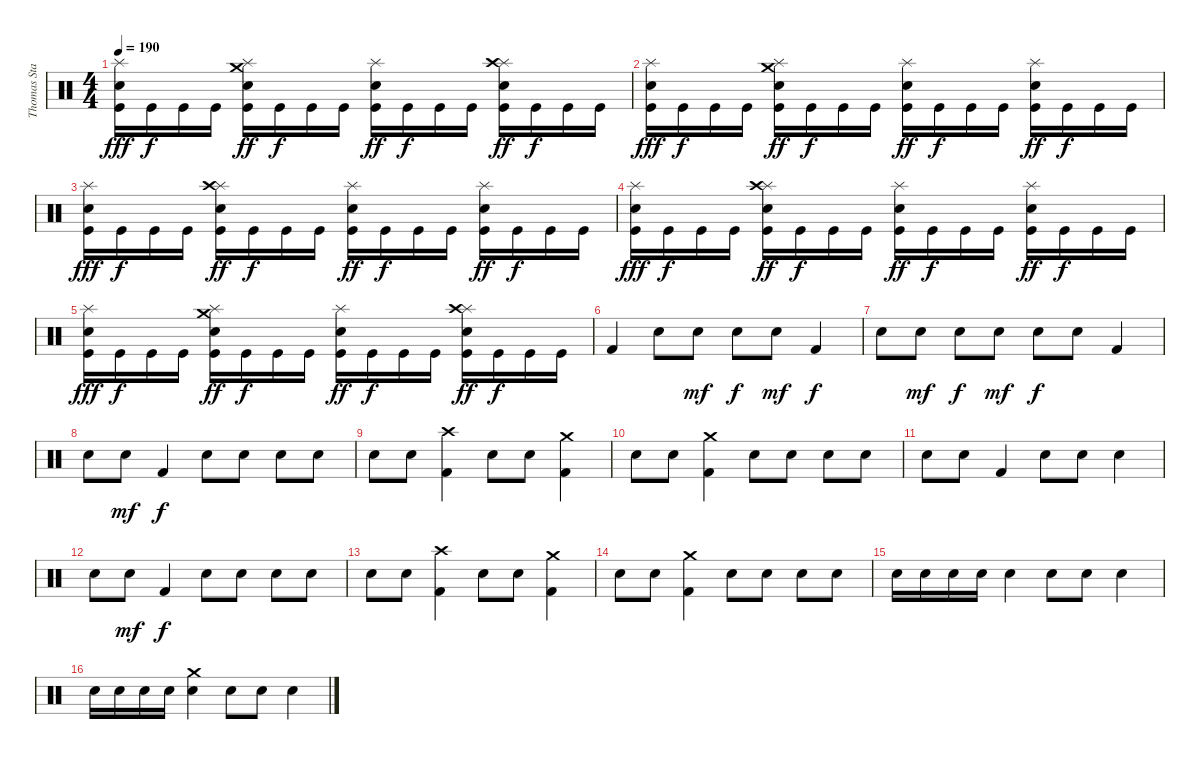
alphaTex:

\track ("Thomas Stauch" "Thomas Sta") {instrument percussion}
\staff {score}
\articulation defaults
\ts (4 4)
\tempo 190
\clef neutral
\ks c
("Splash (hit)" "Electric Snare (hit)" "Kick (hit)").16{dy fff} "Kick (hit)".16{dy f} "Kick (hit)".16 "Kick (hit)".16 ("Splash (hit)" "Crash medium (hit)" "Electric Snare (hit)" "Kick (hit)").16{dy ff} "Kick (hit)".16{dy f} "Kick (hit)".16 "Kick (hit)".16 ("Splash (hit)" "Electric Snare (hit)" "Kick (hit)").16{dy ff} "Kick (hit)".16{dy f} "Kick (hit)".16 "Kick (hit)".16 ("Splash (hit)" "Crash high (hit)" "Electric Snare (hit)" "Kick (hit)").16{dy ff} "Kick (hit)".16{dy f} "Kick (hit)".16 "Kick (hit)".16 |
("Splash (hit)" "Electric Snare (hit)" "Kick (hit)").16{dy fff} "Kick (hit)".16{dy f} "Kick (hit)".16 "Kick (hit)".16 ("Splash (hit)" "Crash medium (hit)" "Electric Snare (hit)" "Kick (hit)").16{dy ff} "Kick (hit)".16{dy f} "Kick (hit)".16 "Kick (hit)".16 ("Splash (hit)" "Electric Snare (hit)" "Kick (hit)").16{dy ff} "Kick (hit)".16{dy f} "Kick (hit)".16 "Kick (hit)".16 ("Splash (hit)" "Electric Snare (hit)" "Kick (hit)").16{dy ff} "Kick (hit)".16{dy f} "Kick (hit)".16 "Kick (hit)".16 |
("Splash (hit)" "Electric Snare (hit)" "Kick (hit)").16{dy fff} "Kick (hit)".16{dy f} "Kick (hit)".16 "Kick (hit)".16 ("Splash (hit)" "Crash high (hit)" "Electric Snare (hit)" "Kick (hit)").16{dy ff} "Kick (hit)".16{dy f} "Kick (hit)".16 "Kick (hit)".16 ("Splash (hit)" "Electric Snare (hit)" "Kick (hit)").16{dy ff} "Kick (hit)".16{dy f} "Kick (hit)".16 "Kick (hit)".16 ("Splash (hit)" "Electric Snare (hit)" "Kick (hit)").16{dy ff} "Kick (hit)".16{dy f} "Kick (hit)".16 "Kick (hit)".16 |
("Splash (hit)" "Electric Snare (hit)" "Kick (hit)").16{dy fff} "Kick (hit)".16{dy f} "Kick (hit)".16 "Kick (hit)".16 ("Splash (hit)" "Crash high (hit)" "Electric Snare (hit)" "Kick (hit)").16{dy ff} "Kick (hit)".16{dy f} "Kick (hit)".16 "Kick (hit)".16 ("Splash (hit)" "Electric Snare (hit)" "Kick (hit)").16{dy ff} "Kick (hit)".16{dy f} "Kick (hit)".16 "Kick (hit)".16 ("Splash (hit)" "Electric Snare (hit)" "Kick (hit)").16{dy ff} "Kick (hit)".16{dy f} "Kick (hit)".16 "Kick (hit)".16 |
("Splash (hit)" "Electric Snare (hit)" "Kick (hit)").16{dy fff} "Kick (hit)".16{dy f} "Kick (hit)".16 "Kick (hit)".16 ("Splash (hit)" "Crash medium (hit)" "Electric Snare (hit)" "Kick (hit)").16{dy ff} "Kick (hit)".16{dy f} "Kick (hit)".16 "Kick (hit)".16 ("Splash (hit)" "Electric Snare (hit)" "Kick (hit)").16{dy ff} "Kick (hit)".16{dy f} "Kick (hit)".16 "Kick (hit)".16 ("Splash (hit)" "Crash high (hit)" "Electric Snare (hit)" "Kick (hit)").16{dy ff} "Kick (hit)".16{dy f} "Kick (hit)".16 "Kick (hit)".16 |
"Kick (hit) 2".4 "Electric Snare (hit)".8 "Electric Snare (hit)".8{dy mf} "Electric Snare (hit)".8{dy f} "Electric Snare (hit)".8{dy mf} "Kick (hit) 2".4{dy f} |
"Electric Snare (hit)".8 "Electric Snare (hit)".8{dy mf} "Electric Snare (hit)".8{dy f} "Electric Snare (hit)".8{dy mf} "Electric Snare (hit)".8{dy f} "Electric Snare (hit)".8 "Kick (hit) 2".4 |
"Electric Snare (hit)".8 "Electric Snare (hit)".8{dy mf} "Kick (hit) 2".4{dy f} "Electric Snare (hit)".8 "Electric Snare (hit)".8 "Electric Snare (hit)".8 "Electric Snare (hit)".8 |
"Electric Snare (hit)".8 "Electric Snare (hit)".8 ("Crash high (hit)" "Kick (hit) 2").4 "Electric Snare (hit)".8 "Electric Snare (hit)".8 ("Crash medium (hit)" "Kick (hit) 2").4 |
"Electric Snare (hit)".8 "Electric Snare (hit)".8 ("Crash medium (hit)" "Kick (hit) 2").4 "Electric Snare (hit)".8 "Electric Snare (hit)".8 "Electric Snare (hit)".8 "Electric Snare (hit)".8 |
"Electric Snare (hit)".8 "Electric Snare (hit)".8 "Kick (hit) 2".4 "Electric Snare (hit)".8 "Electric Snare (hit)".8 "Electric Snare (hit)".4 |
"Electric Snare (hit)".8 "Electric Snare (hit)".8{dy mf} "Kick (hit) 2".4{dy f} "Electric Snare (hit)".8 "Electric Snare (hit)".8 "Electric Snare (hit)".8 "Electric Snare (hit)".8 |
"Electric Snare (hit)".8 "Electric Snare (hit)".8 ("Crash high (hit)" "Kick (hit) 2").4 "Electric Snare (hit)".8 "Electric Snare (hit)".8 ("Crash medium (hit)" "Kick (hit) 2").4 |
"Electric Snare (hit)".8 "Electric Snare (hit)".8 ("Crash medium (hit)" "Kick (hit) 2").4 "Electric Snare (hit)".8 "Electric Snare (hit)".8 "Electric Snare (hit)".8 "Electric Snare (hit)".8 |
"Electric Snare (hit)".16 "Electric Snare (hit)".16 "Electric Snare (hit)".16 "Electric Snare (hit)".16 "Electric Snare (hit)".4 "Electric Snare (hit)".8 "Electric Snare (hit)".8 "Electric Snare (hit)".4 |
"Electric Snare (hit)".16 "Electric Snare (hit)".16 "Electric Snare (hit)".16 "Electric Snare (hit)".16 ("Crash medium (hit)" "Electric Snare (hit)").4 "Electric Snare (hit)".8 "Electric Snare (hit)".8 "Electric Snare (hit)".4
